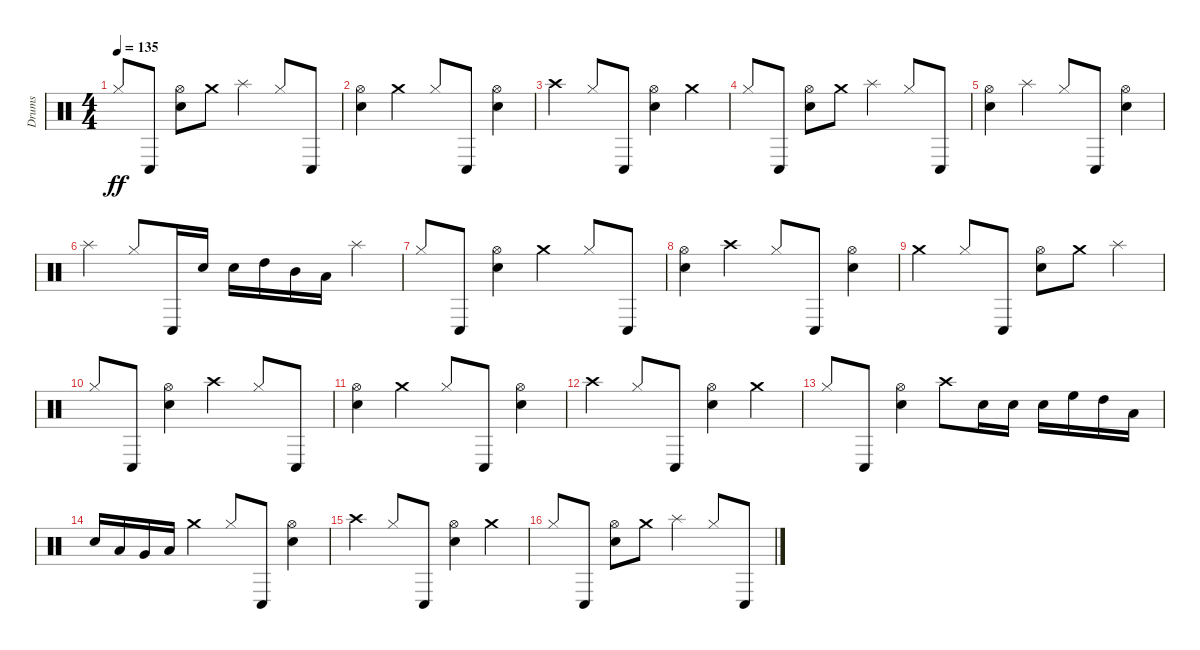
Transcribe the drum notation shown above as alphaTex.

\track ("Drums" "Drums") {instrument percussion}
\staff {score}
\articulation defaults
\ts (4 4)
\tempo 135
\clef neutral
\ks c "Hi-Hat (closed)".8{dy ff} "Conga low (hit)".8
("Electric Snare (hit)" "Hi-Hat (open)").8 "Crash medium (hit)".8 "Splash (hit)".4 "Hi-Hat (closed)".8 "Conga low (hit)".8 |
("Electric Snare (hit)" "Hi-Hat (open)").4 "Crash medium (hit)".4 "Hi-Hat (closed)".8 "Conga low (hit)".8 ("Electric Snare (hit)" "Hi-Hat (open)").4 |
"Crash high (hit)".4 "Hi-Hat (closed)".8 "Conga low (hit)".8 ("Electric Snare (hit)" "Hi-Hat (open)").4 "Crash medium (hit)".4 |
"Hi-Hat (closed)".8 "Conga low (hit)".8 ("Electric Snare (hit)" "Hi-Hat (open)").8 "Crash medium (hit)".8 "Splash (hit)".4 "Hi-Hat (closed)".8 "Conga low (hit)".8 |
("Electric Snare (hit)" "Hi-Hat (open)").4 "Splash (hit)".4 "Hi-Hat (closed)".8 "Conga low (hit)".8 ("Electric Snare (hit)" "Hi-Hat (open)").4 |
"Splash (hit)".4 "Hi-Hat (closed)".8 "Conga low (hit)".16 "Electric Snare (hit)".16 "Electric Snare (hit)".16 "High Tom (hit)".16 "Mid Tom (hit)".16 "Low Tom (hit)".16 "Splash (hit)".4 |
"Hi-Hat (closed)".8 "Conga low (hit)".8 ("Electric Snare (hit)" "Hi-Hat (open)").4 "Crash medium (hit)".4 "Hi-Hat (closed)".8 "Conga low (hit)".8 |
("Electric Snare (hit)" "Hi-Hat (open)").4 "Crash high (hit)".4 "Hi-Hat (closed)".8 "Conga low (hit)".8 ("Electric Snare (hit)" "Hi-Hat (open)").4 |
"Crash medium (hit)".4 "Hi-Hat (closed)".8 "Conga low (hit)".8 ("Electric Snare (hit)" "Hi-Hat (open)").8 "Crash medium (hit)".8 "Splash (hit)".4 |
"Hi-Hat (closed)".8 "Conga low (hit)".8 ("Electric Snare (hit)" "Hi-Hat (open)").4 "Crash high (hit)".4 "Hi-Hat (closed)".8 "Conga low (hit)".8 |
("Electric Snare (hit)" "Hi-Hat (open)").4 "Crash medium (hit)".4 "Hi-Hat (closed)".8 "Conga low (hit)".8 ("Electric Snare (hit)" "Hi-Hat (open)").4 |
"Crash high (hit)".4 "Hi-Hat (closed)".8 "Conga low (hit)".8 ("Electric Snare (hit)" "Hi-Hat (open)").4 "Crash medium (hit)".4 |
"Hi-Hat (closed)".8 "Conga low (hit)".8 ("Electric Snare (hit)" "Hi-Hat (open)").4 "Crash high (hit)".8 "Electric Snare (hit)".16 "Electric Snare (hit)".16 "Electric Snare (hit)".16 "High Floor Tom (hit)".16 "High Tom (hit)".16 "Low Tom (hit)".16 |
"Electric Snare (hit)".16 "Low Tom (hit)".16 "Very Low Tom (hit)".16 "Low Floor Tom (hit)".16 "Crash medium (hit)".4 "Hi-Hat (closed)".8 "Conga low (hit)".8 ("Electric Snare (hit)" "Hi-Hat (open)").4 |
"Crash high (hit)".4 "Hi-Hat (closed)".8 "Conga low (hit)".8 ("Electric Snare (hit)" "Hi-Hat (open)").4 "Crash medium (hit)".4 |
"Hi-Hat (closed)".8 "Conga low (hit)".8 ("Electric Snare (hit)" "Hi-Hat (open)").8 "Crash medium (hit)".8 "Splash (hit)".4 "Hi-Hat (closed)".8 "Conga low (hit)".8
